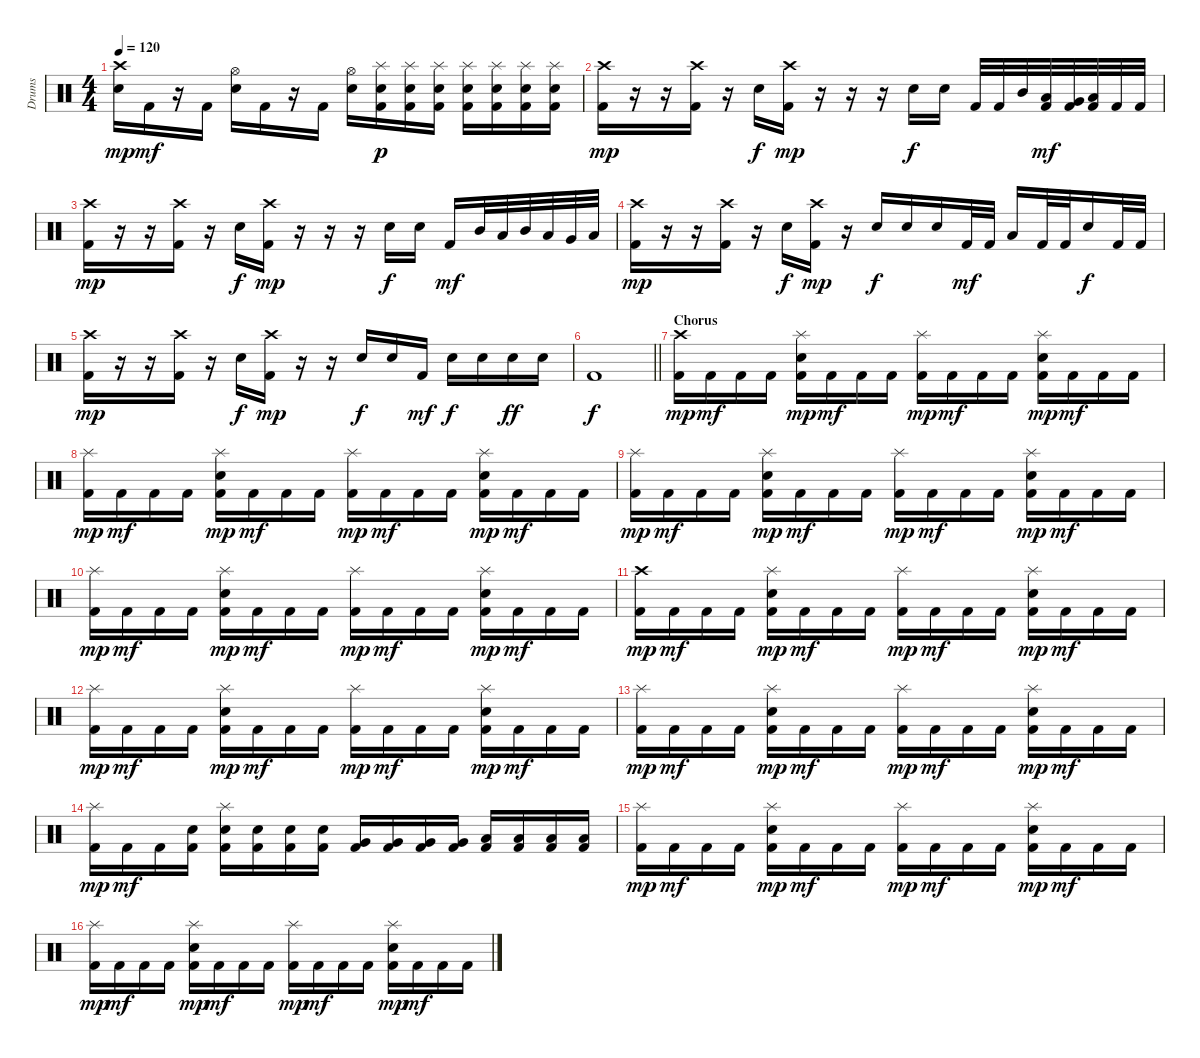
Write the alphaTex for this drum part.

\track ("Drums" "Drums") {instrument percussion}
\staff {score}
\articulation defaults
\ts (4 4)
\tempo 120
\clef neutral
\ks c
("Crash high (hit)" "Snare (hit) 2").16{dy mp} "Kick (hit) 2".16{dy mf} r.16 "Kick (hit) 2".16 ("Hi-Hat (open)" "Snare (hit) 2").16 "Kick (hit) 2".16 r.16 "Kick (hit) 2".16 ("Hi-Hat (open)" "Snare (hit) 2").16 ("Kick (hit) 2" "Splash (hit)" "Snare (hit) 2").16{dy p} ("Kick (hit) 2" "Splash (hit)" "Snare (hit) 2").16 ("Kick (hit) 2" "Splash (hit)" "Snare (hit) 2").16 ("Kick (hit) 2" "Splash (hit)" "Snare (hit) 2").16 ("Kick (hit) 2" "Splash (hit)" "Snare (hit) 2").16 ("Kick (hit) 2" "Splash (hit)" "Snare (hit) 2").16 ("Kick (hit) 2" "Splash (hit)" "Snare (hit) 2").16 |
("Kick (hit) 2" "Crash high (hit)").16{dy mp} r.16 r.16 ("Kick (hit) 2" "Crash high (hit)").16 r.16 "Snare (hit) 2".16{dy f} ("Kick (hit) 2" "Crash high (hit)").16{dy mp} r.16 r.16 r.16 "Snare (hit) 2".16{dy f} "Snare (hit) 2".16 "Kick (hit) 2".32 "Kick (hit) 2".32 "Mid Tom (hit)".32 ("Kick (hit) 2" "Low Floor Tom (hit)").32{dy mf} ("Kick (hit) 2" "Very Low Tom (hit)").32 ("Kick (hit) 2" "Low Floor Tom (hit)").32 "Kick (hit) 2".32 "Kick (hit) 2".32 |
("Kick (hit) 2" "Crash high (hit)").16{dy mp} r.16 r.16 ("Kick (hit) 2" "Crash high (hit)").16 r.16 "Snare (hit) 2".16{dy f} ("Kick (hit) 2" "Crash high (hit)").16{dy mp} r.16 r.16 r.16 "Snare (hit) 2".16{dy f} "Snare (hit) 2".16 "Kick (hit) 2".16{dy mf} "Mid Tom (hit)".32 "Low Tom (hit)".32 "Mid Tom (hit)".32 "Low Tom (hit)".32 "Very Low Tom (hit)".32 "Low Floor Tom (hit)".32 |
("Kick (hit) 2" "Crash high (hit)").16{dy mp} r.16 r.16 ("Kick (hit) 2" "Crash high (hit)").16 r.16 "Snare (hit) 2".16{dy f} ("Kick (hit) 2" "Crash high (hit)").16{dy mp} r.16 "Snare (hit) 2".16{dy f} "Snare (hit) 2".16 "Snare (hit) 2".16 "Kick (hit) 2".32{dy mf} "Kick (hit) 2".32 "Low Tom (hit)".16 "Kick (hit) 2".32 "Kick (hit) 2".32 "Snare (hit) 2".16{dy f} "Kick (hit) 2".32 "Kick (hit) 2".32 |
("Kick (hit) 2" "Crash high (hit)").16{dy mp} r.16 r.16 ("Kick (hit) 2" "Crash high (hit)").16 r.16 "Snare (hit) 2".16{dy f} ("Kick (hit) 2" "Crash high (hit)").16{dy mp} r.16 r.16 "Snare (hit) 2".16{dy f} "Snare (hit) 2".16 "Kick (hit) 2".16{dy mf} "Snare (hit) 2".16{dy f} "Snare (hit) 2".16 "Snare (hit) 2".16{dy ff} "Snare (hit) 2".16 |
\barLineRight lightlight "Kick (hit) 2".1{dy f}
|
\section ("" "Chorus")
("Kick (hit) 2" "Crash high (hit)").16{dy mp} "Kick (hit) 2".16{dy mf} "Kick (hit) 2".16 "Kick (hit) 2".16 ("Kick (hit) 2" "Splash (hit)" "Snare (hit) 2").16{dy mp} "Kick (hit) 2".16{dy mf} "Kick (hit) 2".16 "Kick (hit) 2".16 ("Kick (hit) 2" "Splash (hit)").16{dy mp} "Kick (hit) 2".16{dy mf} "Kick (hit) 2".16 "Kick (hit) 2".16 ("Kick (hit) 2" "Splash (hit)" "Snare (hit) 2").16{dy mp} "Kick (hit) 2".16{dy mf} "Kick (hit) 2".16 "Kick (hit) 2".16 |
("Kick (hit) 2" "Splash (hit)").16{dy mp} "Kick (hit) 2".16{dy mf} "Kick (hit) 2".16 "Kick (hit) 2".16 ("Kick (hit) 2" "Splash (hit)" "Snare (hit) 2").16{dy mp} "Kick (hit) 2".16{dy mf} "Kick (hit) 2".16 "Kick (hit) 2".16 ("Kick (hit) 2" "Splash (hit)").16{dy mp} "Kick (hit) 2".16{dy mf} "Kick (hit) 2".16 "Kick (hit) 2".16 ("Kick (hit) 2" "Splash (hit)" "Snare (hit) 2").16{dy mp} "Kick (hit) 2".16{dy mf} "Kick (hit) 2".16 "Kick (hit) 2".16 |
("Kick (hit) 2" "Splash (hit)").16{dy mp} "Kick (hit) 2".16{dy mf} "Kick (hit) 2".16 "Kick (hit) 2".16 ("Kick (hit) 2" "Splash (hit)" "Snare (hit) 2").16{dy mp} "Kick (hit) 2".16{dy mf} "Kick (hit) 2".16 "Kick (hit) 2".16 ("Kick (hit) 2" "Splash (hit)").16{dy mp} "Kick (hit) 2".16{dy mf} "Kick (hit) 2".16 "Kick (hit) 2".16 ("Kick (hit) 2" "Splash (hit)" "Snare (hit) 2").16{dy mp} "Kick (hit) 2".16{dy mf} "Kick (hit) 2".16 "Kick (hit) 2".16 |
("Kick (hit) 2" "Splash (hit)").16{dy mp} "Kick (hit) 2".16{dy mf} "Kick (hit) 2".16 "Kick (hit) 2".16 ("Kick (hit) 2" "Splash (hit)" "Snare (hit) 2").16{dy mp} "Kick (hit) 2".16{dy mf} "Kick (hit) 2".16 "Kick (hit) 2".16 ("Kick (hit) 2" "Splash (hit)").16{dy mp} "Kick (hit) 2".16{dy mf} "Kick (hit) 2".16 "Kick (hit) 2".16 ("Kick (hit) 2" "Splash (hit)" "Snare (hit) 2").16{dy mp} "Kick (hit) 2".16{dy mf} "Kick (hit) 2".16 "Kick (hit) 2".16 |
("Kick (hit) 2" "Crash high (hit)").16{dy mp} "Kick (hit) 2".16{dy mf} "Kick (hit) 2".16 "Kick (hit) 2".16 ("Kick (hit) 2" "Splash (hit)" "Snare (hit) 2").16{dy mp} "Kick (hit) 2".16{dy mf} "Kick (hit) 2".16 "Kick (hit) 2".16 ("Kick (hit) 2" "Splash (hit)").16{dy mp} "Kick (hit) 2".16{dy mf} "Kick (hit) 2".16 "Kick (hit) 2".16 ("Kick (hit) 2" "Splash (hit)" "Snare (hit) 2").16{dy mp} "Kick (hit) 2".16{dy mf} "Kick (hit) 2".16 "Kick (hit) 2".16 |
("Kick (hit) 2" "Splash (hit)").16{dy mp} "Kick (hit) 2".16{dy mf} "Kick (hit) 2".16 "Kick (hit) 2".16 ("Kick (hit) 2" "Splash (hit)" "Snare (hit) 2").16{dy mp} "Kick (hit) 2".16{dy mf} "Kick (hit) 2".16 "Kick (hit) 2".16 ("Kick (hit) 2" "Splash (hit)").16{dy mp} "Kick (hit) 2".16{dy mf} "Kick (hit) 2".16 "Kick (hit) 2".16 ("Kick (hit) 2" "Splash (hit)" "Snare (hit) 2").16{dy mp} "Kick (hit) 2".16{dy mf} "Kick (hit) 2".16 "Kick (hit) 2".16 |
("Kick (hit) 2" "Splash (hit)").16{dy mp} "Kick (hit) 2".16{dy mf} "Kick (hit) 2".16 "Kick (hit) 2".16 ("Kick (hit) 2" "Splash (hit)" "Snare (hit) 2").16{dy mp} "Kick (hit) 2".16{dy mf} "Kick (hit) 2".16 "Kick (hit) 2".16 ("Kick (hit) 2" "Splash (hit)").16{dy mp} "Kick (hit) 2".16{dy mf} "Kick (hit) 2".16 "Kick (hit) 2".16 ("Kick (hit) 2" "Splash (hit)" "Snare (hit) 2").16{dy mp} "Kick (hit) 2".16{dy mf} "Kick (hit) 2".16 "Kick (hit) 2".16 |
("Kick (hit) 2" "Splash (hit)").16{dy mp} "Kick (hit) 2".16{dy mf} "Kick (hit) 2".16 ("Kick (hit) 2" "Snare (hit) 2").16 ("Kick (hit) 2" "Splash (hit)" "Snare (hit) 2").16 ("Kick (hit) 2" "Snare (hit) 2").16 ("Kick (hit) 2" "Snare (hit) 2").16 ("Kick (hit) 2" "Snare (hit) 2").16 ("Kick (hit) 2" "Very Low Tom (hit)").16 ("Kick (hit) 2" "Very Low Tom (hit)").16 ("Kick (hit) 2" "Very Low Tom (hit)").16 ("Kick (hit) 2" "Very Low Tom (hit)").16 ("Kick (hit) 2" "Low Floor Tom (hit)").16 ("Kick (hit) 2" "Low Floor Tom (hit)").16 ("Kick (hit) 2" "Low Floor Tom (hit)").16 ("Kick (hit) 2" "Low Floor Tom (hit)").16 |
("Kick (hit) 2" "Splash (hit)").16{dy mp} "Kick (hit) 2".16{dy mf} "Kick (hit) 2".16 "Kick (hit) 2".16 ("Kick (hit) 2" "Splash (hit)" "Snare (hit) 2").16{dy mp} "Kick (hit) 2".16{dy mf} "Kick (hit) 2".16 "Kick (hit) 2".16 ("Kick (hit) 2" "Splash (hit)").16{dy mp} "Kick (hit) 2".16{dy mf} "Kick (hit) 2".16 "Kick (hit) 2".16 ("Kick (hit) 2" "Splash (hit)" "Snare (hit) 2").16{dy mp} "Kick (hit) 2".16{dy mf} "Kick (hit) 2".16 "Kick (hit) 2".16 |
("Kick (hit) 2" "Splash (hit)").16{dy mp} "Kick (hit) 2".16{dy mf} "Kick (hit) 2".16 "Kick (hit) 2".16 ("Kick (hit) 2" "Splash (hit)" "Snare (hit) 2").16{dy mp} "Kick (hit) 2".16{dy mf} "Kick (hit) 2".16 "Kick (hit) 2".16 ("Kick (hit) 2" "Splash (hit)").16{dy mp} "Kick (hit) 2".16{dy mf} "Kick (hit) 2".16 "Kick (hit) 2".16 ("Kick (hit) 2" "Splash (hit)" "Snare (hit) 2").16{dy mp} "Kick (hit) 2".16{dy mf} "Kick (hit) 2".16 "Kick (hit) 2".16
